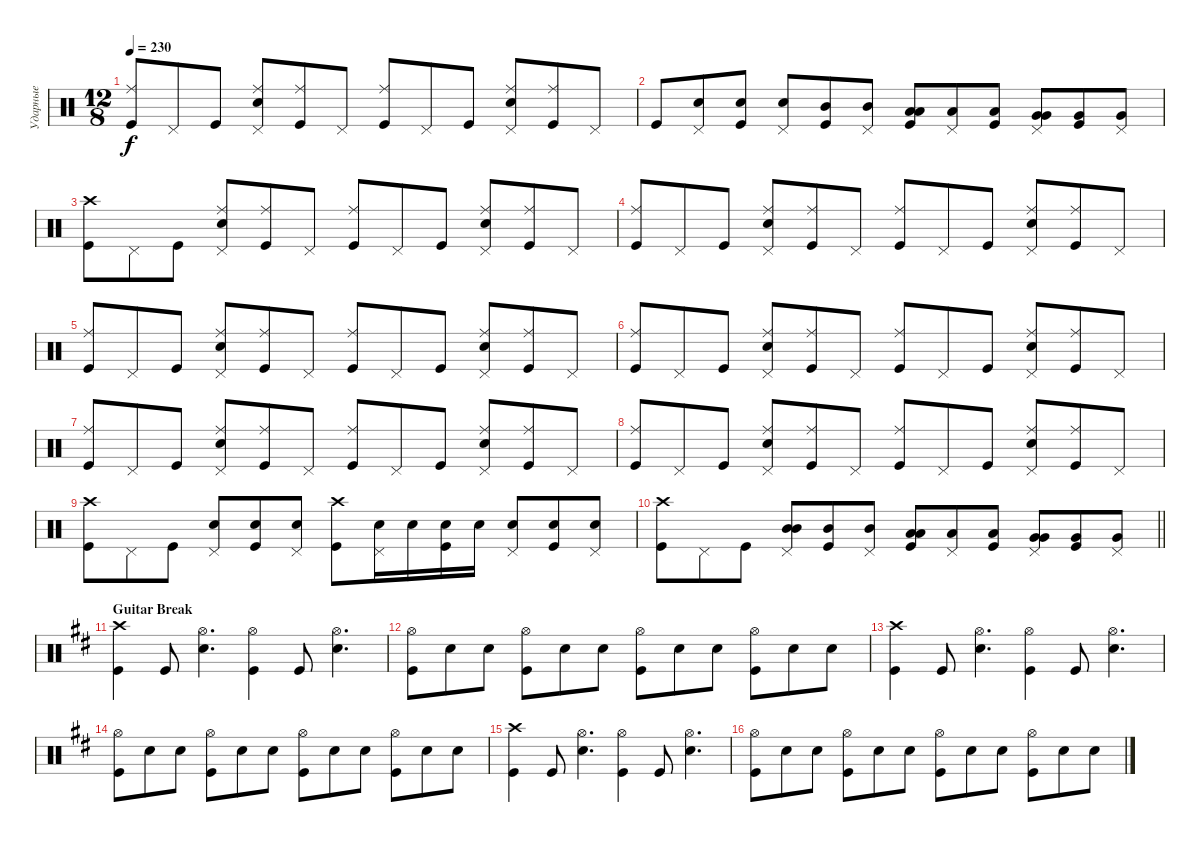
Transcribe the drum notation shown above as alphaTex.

\track ("Ударные" "Ударные") {instrument percussion}
\staff {score}
\articulation defaults
\ts (12 8)
\tempo 230
\clef neutral
\ks aminor
("Kick (hit)" "Ride (middle)").8{dy f} "Pedal Hi-Hat (hit)".8 "Kick (hit)".8 ("Snare (hit) 2" "Ride (middle)" "Pedal Hi-Hat (hit)").8 ("Ride (middle)" "Kick (hit)").8 "Pedal Hi-Hat (hit)".8 ("Kick (hit)" "Ride (middle)").8 "Pedal Hi-Hat (hit)".8 "Kick (hit)".8 ("Snare (hit) 2" "Ride (middle)" "Pedal Hi-Hat (hit)").8 ("Kick (hit)" "Ride (middle)").8 "Pedal Hi-Hat (hit)".8 |
"Kick (hit)".8 ("Snare (hit) 2" "Pedal Hi-Hat (hit)").8 ("Snare (hit) 2" "Kick (hit)").8 ("Snare (hit) 2" "Pedal Hi-Hat (hit)").8 ("Mid Tom (hit)" "Kick (hit)").8 ("Mid Tom (hit)" "Pedal Hi-Hat (hit)").8 ("Low Tom (hit)" "Kick (hit)" "Low Tom (hit)").8{bd 240} ("Low Tom (hit)" "Pedal Hi-Hat (hit)").8 ("Low Tom (hit)" "Kick (hit)").8 ("Very Low Tom (hit)" "Pedal Hi-Hat (hit)" "Very Low Tom (hit)").8{bd 240} ("Very Low Tom (hit)" "Kick (hit)").8 ("Very Low Tom (hit)" "Pedal Hi-Hat (hit)").8 |
("Kick (hit)" "Crash high (hit)").8 "Pedal Hi-Hat (hit)".8 "Kick (hit)".8 ("Snare (hit) 2" "Ride (middle)" "Pedal Hi-Hat (hit)").8 ("Ride (middle)" "Kick (hit)").8 "Pedal Hi-Hat (hit)".8 ("Kick (hit)" "Ride (middle)").8 "Pedal Hi-Hat (hit)".8 "Kick (hit)".8 ("Snare (hit) 2" "Ride (middle)" "Pedal Hi-Hat (hit)").8 ("Kick (hit)" "Ride (middle)").8 "Pedal Hi-Hat (hit)".8 |
("Kick (hit)" "Ride (middle)").8 "Pedal Hi-Hat (hit)".8 "Kick (hit)".8 ("Snare (hit) 2" "Ride (middle)" "Pedal Hi-Hat (hit)").8 ("Ride (middle)" "Kick (hit)").8 "Pedal Hi-Hat (hit)".8 ("Kick (hit)" "Ride (middle)").8 "Pedal Hi-Hat (hit)".8 "Kick (hit)".8 ("Snare (hit) 2" "Ride (middle)" "Pedal Hi-Hat (hit)").8 ("Kick (hit)" "Ride (middle)").8 "Pedal Hi-Hat (hit)".8 |
("Kick (hit)" "Ride (middle)").8 "Pedal Hi-Hat (hit)".8 "Kick (hit)".8 ("Snare (hit) 2" "Ride (middle)" "Pedal Hi-Hat (hit)").8 ("Ride (middle)" "Kick (hit)").8 "Pedal Hi-Hat (hit)".8 ("Kick (hit)" "Ride (middle)").8 "Pedal Hi-Hat (hit)".8 "Kick (hit)".8 ("Snare (hit) 2" "Ride (middle)" "Pedal Hi-Hat (hit)").8 ("Kick (hit)" "Ride (middle)").8 "Pedal Hi-Hat (hit)".8 |
("Kick (hit)" "Ride (middle)").8 "Pedal Hi-Hat (hit)".8 "Kick (hit)".8 ("Snare (hit) 2" "Ride (middle)" "Pedal Hi-Hat (hit)").8 ("Ride (middle)" "Kick (hit)").8 "Pedal Hi-Hat (hit)".8 ("Kick (hit)" "Ride (middle)").8 "Pedal Hi-Hat (hit)".8 "Kick (hit)".8 ("Snare (hit) 2" "Ride (middle)" "Pedal Hi-Hat (hit)").8 ("Kick (hit)" "Ride (middle)").8 "Pedal Hi-Hat (hit)".8 |
("Kick (hit)" "Ride (middle)").8 "Pedal Hi-Hat (hit)".8 "Kick (hit)".8 ("Snare (hit) 2" "Ride (middle)" "Pedal Hi-Hat (hit)").8 ("Ride (middle)" "Kick (hit)").8 "Pedal Hi-Hat (hit)".8 ("Kick (hit)" "Ride (middle)").8 "Pedal Hi-Hat (hit)".8 "Kick (hit)".8 ("Snare (hit) 2" "Ride (middle)" "Pedal Hi-Hat (hit)").8 ("Kick (hit)" "Ride (middle)").8 "Pedal Hi-Hat (hit)".8 |
("Kick (hit)" "Ride (middle)").8 "Pedal Hi-Hat (hit)".8 "Kick (hit)".8 ("Snare (hit) 2" "Ride (middle)" "Pedal Hi-Hat (hit)").8 ("Ride (middle)" "Kick (hit)").8 "Pedal Hi-Hat (hit)".8 ("Kick (hit)" "Ride (middle)").8 "Pedal Hi-Hat (hit)".8 "Kick (hit)".8 ("Snare (hit) 2" "Ride (middle)" "Pedal Hi-Hat (hit)").8 ("Kick (hit)" "Ride (middle)").8 "Pedal Hi-Hat (hit)".8 |
("Kick (hit)" "Crash high (hit)").8 "Pedal Hi-Hat (hit)".8 "Kick (hit)".8 ("Snare (hit) 2" "Pedal Hi-Hat (hit)").8 ("Snare (hit) 2" "Kick (hit)").8 ("Snare (hit) 2" "Pedal Hi-Hat (hit)").8 ("Kick (hit)" "Crash high (hit)").8 ("Snare (hit) 2" "Pedal Hi-Hat (hit)").16 "Snare (hit) 2".16 ("Snare (hit) 2" "Kick (hit)").16 "Snare (hit) 2".16 ("Snare (hit) 2" "Pedal Hi-Hat (hit)").8 ("Snare (hit) 2" "Kick (hit)").8 ("Snare (hit) 2" "Pedal Hi-Hat (hit)").8 |
\barLineRight lightlight
("Kick (hit)" "Crash high (hit)").8 "Pedal Hi-Hat (hit)".8 "Kick (hit)".8 ("Mid Tom (hit)" "Pedal Hi-Hat (hit)" "Mid Tom (hit)").8{bd 240} ("Mid Tom (hit)" "Kick (hit)").8 ("Mid Tom (hit)" "Pedal Hi-Hat (hit)").8 ("Low Tom (hit)" "Kick (hit)" "Low Tom (hit)").8{bd 240} ("Low Tom (hit)" "Pedal Hi-Hat (hit)").8 ("Low Tom (hit)" "Kick (hit)").8 ("Very Low Tom (hit)" "Pedal Hi-Hat (hit)" "Very Low Tom (hit)").8{bd 240} ("Very Low Tom (hit)" "Kick (hit)").8 ("Very Low Tom (hit)" "Pedal Hi-Hat (hit)").8 |
\section ("" "Guitar Break")
\ks bminor
("Kick (hit)" "Crash high (hit)").4 "Kick (hit)".8 ("Snare (hit) 2" "Hi-Hat (open)").4{d} ("Kick (hit)" "Hi-Hat (open)").4 "Kick (hit)".8 ("Snare (hit) 2" "Hi-Hat (open)").4{d} |
("Kick (hit)" "Hi-Hat (open)").8 "Snare (hit) 2".8 "Snare (hit) 2".8 ("Kick (hit)" "Hi-Hat (open)").8 "Snare (hit) 2".8 "Snare (hit) 2".8 ("Kick (hit)" "Hi-Hat (open)").8 "Snare (hit) 2".8 "Snare (hit) 2".8 ("Kick (hit)" "Hi-Hat (open)").8 "Snare (hit) 2".8 "Snare (hit) 2".8 |
("Kick (hit)" "Crash high (hit)").4 "Kick (hit)".8 ("Snare (hit) 2" "Hi-Hat (open)").4{d} ("Kick (hit)" "Hi-Hat (open)").4 "Kick (hit)".8 ("Snare (hit) 2" "Hi-Hat (open)").4{d} |
("Kick (hit)" "Hi-Hat (open)").8 "Snare (hit) 2".8 "Snare (hit) 2".8 ("Kick (hit)" "Hi-Hat (open)").8 "Snare (hit) 2".8 "Snare (hit) 2".8 ("Kick (hit)" "Hi-Hat (open)").8 "Snare (hit) 2".8 "Snare (hit) 2".8 ("Kick (hit)" "Hi-Hat (open)").8 "Snare (hit) 2".8 "Snare (hit) 2".8 |
("Kick (hit)" "Crash high (hit)").4 "Kick (hit)".8 ("Snare (hit) 2" "Hi-Hat (open)").4{d} ("Kick (hit)" "Hi-Hat (open)").4 "Kick (hit)".8 ("Snare (hit) 2" "Hi-Hat (open)").4{d} |
("Kick (hit)" "Hi-Hat (open)").8 "Snare (hit) 2".8 "Snare (hit) 2".8 ("Kick (hit)" "Hi-Hat (open)").8 "Snare (hit) 2".8 "Snare (hit) 2".8 ("Kick (hit)" "Hi-Hat (open)").8 "Snare (hit) 2".8 "Snare (hit) 2".8 ("Kick (hit)" "Hi-Hat (open)").8 "Snare (hit) 2".8 "Snare (hit) 2".8
